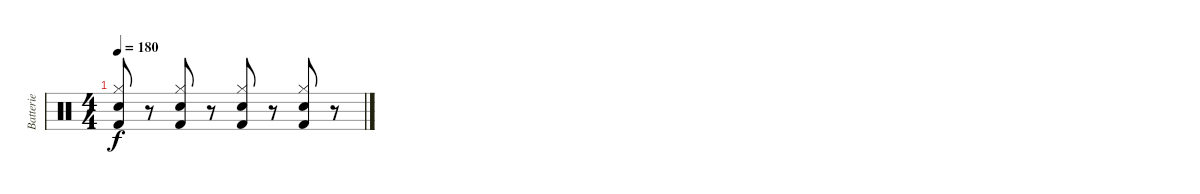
\track ("Batterie" "Batterie") {instrument percussion}
\staff {score}
\articulation defaults
\ts (4 4)
\tempo 180
\clef neutral
\ks c
("Electric Snare (hit)" "Hi-Hat (closed)" "Kick (hit) 2").8{dy f} r.8 ("Electric Snare (hit)" "Hi-Hat (closed)" "Kick (hit) 2").8 r.8 ("Electric Snare (hit)" "Hi-Hat (closed)" "Kick (hit) 2").8 r.8 ("Electric Snare (hit)" "Hi-Hat (closed)" "Kick (hit) 2").8 r.8
